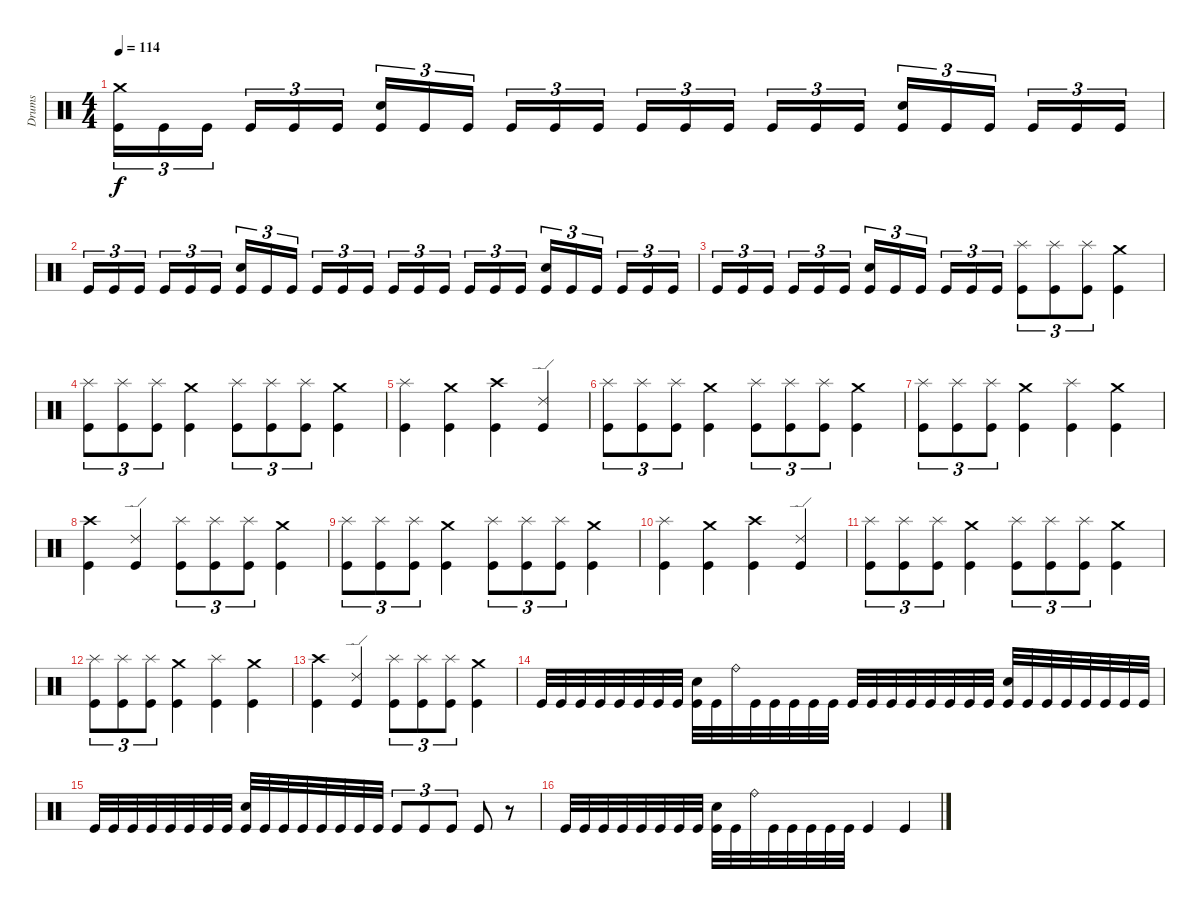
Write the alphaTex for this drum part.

\track ("Drums" "Drums") {instrument percussion}
\staff {score}
\articulation defaults
\ts (4 4)
\tempo 114
\clef neutral
\ks c
("Crash medium (hit)" "Kick (hit)").16{tu (3 2) dy f} "Kick (hit)".16{tu (3 2)} "Kick (hit)".16{tu (3 2)} "Kick (hit)".16{tu (3 2)} "Kick (hit)".16{tu (3 2)} "Kick (hit)".16{tu (3 2)} ("Snare (hit) 2" "Kick (hit)").16{tu (3 2)} "Kick (hit)".16{tu (3 2)} "Kick (hit)".16{tu (3 2)} "Kick (hit)".16{tu (3 2)} "Kick (hit)".16{tu (3 2)} "Kick (hit)".16{tu (3 2)} "Kick (hit)".16{tu (3 2)} "Kick (hit)".16{tu (3 2)} "Kick (hit)".16{tu (3 2)} "Kick (hit)".16{tu (3 2)} "Kick (hit)".16{tu (3 2)} "Kick (hit)".16{tu (3 2)} ("Snare (hit) 2" "Kick (hit)").16{tu (3 2)} "Kick (hit)".16{tu (3 2)} "Kick (hit)".16{tu (3 2)} "Kick (hit)".16{tu (3 2)} "Kick (hit)".16{tu (3 2)} "Kick (hit)".16{tu (3 2)} |
"Kick (hit)".16{tu (3 2)} "Kick (hit)".16{tu (3 2)} "Kick (hit)".16{tu (3 2)} "Kick (hit)".16{tu (3 2)} "Kick (hit)".16{tu (3 2)} "Kick (hit)".16{tu (3 2)} ("Snare (hit) 2" "Kick (hit)").16{tu (3 2)} "Kick (hit)".16{tu (3 2)} "Kick (hit)".16{tu (3 2)} "Kick (hit)".16{tu (3 2)} "Kick (hit)".16{tu (3 2)} "Kick (hit)".16{tu (3 2)} "Kick (hit)".16{tu (3 2)} "Kick (hit)".16{tu (3 2)} "Kick (hit)".16{tu (3 2)} "Kick (hit)".16{tu (3 2)} "Kick (hit)".16{tu (3 2)} "Kick (hit)".16{tu (3 2)} ("Snare (hit) 2" "Kick (hit)").16{tu (3 2)} "Kick (hit)".16{tu (3 2)} "Kick (hit)".16{tu (3 2)} "Kick (hit)".16{tu (3 2)} "Kick (hit)".16{tu (3 2)} "Kick (hit)".16{tu (3 2)} |
"Kick (hit)".16{tu (3 2)} "Kick (hit)".16{tu (3 2)} "Kick (hit)".16{tu (3 2)} "Kick (hit)".16{tu (3 2)} "Kick (hit)".16{tu (3 2)} "Kick (hit)".16{tu (3 2)} ("Snare (hit) 2" "Kick (hit)").16{tu (3 2)} "Kick (hit)".16{tu (3 2)} "Kick (hit)".16{tu (3 2)} "Kick (hit)".16{tu (3 2)} "Kick (hit)".16{tu (3 2)} "Kick (hit)".16{tu (3 2)} ("Splash (hit)" "Kick (hit)").8{tu (3 2)} ("Splash (hit)" "Kick (hit)").8{tu (3 2)} ("Splash (hit)" "Kick (hit)").8{tu (3 2)} ("Crash medium (hit)" "Kick (hit)").4 |
("Splash (hit)" "Kick (hit)").8{tu (3 2)} ("Splash (hit)" "Kick (hit)").8{tu (3 2)} ("Splash (hit)" "Kick (hit)").8{tu (3 2)} ("Crash medium (hit)" "Kick (hit)").4 ("Splash (hit)" "Kick (hit)").8{tu (3 2)} ("Splash (hit)" "Kick (hit)").8{tu (3 2)} ("Splash (hit)" "Kick (hit)").8{tu (3 2)} ("Crash medium (hit)" "Kick (hit)").4 |
("Splash (hit)" "Kick (hit)").4 ("Crash medium (hit)" "Kick (hit)").4 ("Crash high (hit)" "Kick (hit)").4 ("Ride (edge) 2" "Kick (hit)").4 |
("Splash (hit)" "Kick (hit)").8{tu (3 2)} ("Splash (hit)" "Kick (hit)").8{tu (3 2)} ("Splash (hit)" "Kick (hit)").8{tu (3 2)} ("Crash medium (hit)" "Kick (hit)").4 ("Splash (hit)" "Kick (hit)").8{tu (3 2)} ("Splash (hit)" "Kick (hit)").8{tu (3 2)} ("Splash (hit)" "Kick (hit)").8{tu (3 2)} ("Crash medium (hit)" "Kick (hit)").4 |
("Splash (hit)" "Kick (hit)").8{tu (3 2)} ("Splash (hit)" "Kick (hit)").8{tu (3 2)} ("Splash (hit)" "Kick (hit)").8{tu (3 2)} ("Crash medium (hit)" "Kick (hit)").4 ("Splash (hit)" "Kick (hit)").4 ("Crash medium (hit)" "Kick (hit)").4 |
("Crash high (hit)" "Kick (hit)").4 ("Ride (edge) 2" "Kick (hit)").4 ("Splash (hit)" "Kick (hit)").8{tu (3 2)} ("Splash (hit)" "Kick (hit)").8{tu (3 2)} ("Splash (hit)" "Kick (hit)").8{tu (3 2)} ("Crash medium (hit)" "Kick (hit)").4 |
("Splash (hit)" "Kick (hit)").8{tu (3 2)} ("Splash (hit)" "Kick (hit)").8{tu (3 2)} ("Splash (hit)" "Kick (hit)").8{tu (3 2)} ("Crash medium (hit)" "Kick (hit)").4 ("Splash (hit)" "Kick (hit)").8{tu (3 2)} ("Splash (hit)" "Kick (hit)").8{tu (3 2)} ("Splash (hit)" "Kick (hit)").8{tu (3 2)} ("Crash medium (hit)" "Kick (hit)").4 |
("Splash (hit)" "Kick (hit)").4 ("Crash medium (hit)" "Kick (hit)").4 ("Crash high (hit)" "Kick (hit)").4 ("Ride (edge) 2" "Kick (hit)").4 |
("Splash (hit)" "Kick (hit)").8{tu (3 2)} ("Splash (hit)" "Kick (hit)").8{tu (3 2)} ("Splash (hit)" "Kick (hit)").8{tu (3 2)} ("Crash medium (hit)" "Kick (hit)").4 ("Splash (hit)" "Kick (hit)").8{tu (3 2)} ("Splash (hit)" "Kick (hit)").8{tu (3 2)} ("Splash (hit)" "Kick (hit)").8{tu (3 2)} ("Crash medium (hit)" "Kick (hit)").4 |
("Splash (hit)" "Kick (hit)").8{tu (3 2)} ("Splash (hit)" "Kick (hit)").8{tu (3 2)} ("Splash (hit)" "Kick (hit)").8{tu (3 2)} ("Crash medium (hit)" "Kick (hit)").4 ("Splash (hit)" "Kick (hit)").4 ("Crash medium (hit)" "Kick (hit)").4 |
("Crash high (hit)" "Kick (hit)").4 ("Ride (edge) 2" "Kick (hit)").4 ("Splash (hit)" "Kick (hit)").8{tu (3 2)} ("Splash (hit)" "Kick (hit)").8{tu (3 2)} ("Splash (hit)" "Kick (hit)").8{tu (3 2)} ("Crash medium (hit)" "Kick (hit)").4 |
"Kick (hit)".32 "Kick (hit)".32 "Kick (hit)".32 "Kick (hit)".32 "Kick (hit)".32 "Kick (hit)".32 "Kick (hit)".32 "Kick (hit)".32 ("Snare (hit) 2" "Kick (hit)").32 "Kick (hit)".32 "Ride (bell)".32 "Kick (hit)".32 "Kick (hit)".32 "Kick (hit)".32 "Kick (hit)".32 "Kick (hit)".32 "Kick (hit)".32 "Kick (hit)".32 "Kick (hit)".32 "Kick (hit)".32 "Kick (hit)".32 "Kick (hit)".32 "Kick (hit)".32 "Kick (hit)".32 ("Snare (hit) 2" "Kick (hit)").32 "Kick (hit)".32 "Kick (hit)".32 "Kick (hit)".32 "Kick (hit)".32 "Kick (hit)".32 "Kick (hit)".32 "Kick (hit)".32 |
"Kick (hit)".32 "Kick (hit)".32 "Kick (hit)".32 "Kick (hit)".32 "Kick (hit)".32 "Kick (hit)".32 "Kick (hit)".32 "Kick (hit)".32 ("Snare (hit) 2" "Kick (hit)").32 "Kick (hit)".32 "Kick (hit)".32 "Kick (hit)".32 "Kick (hit)".32 "Kick (hit)".32 "Kick (hit)".32 "Kick (hit)".32 "Kick (hit)".8{tu (3 2)} "Kick (hit)".8{tu (3 2)} "Kick (hit)".8{tu (3 2)} "Kick (hit)".8 r.8 |
"Kick (hit)".32 "Kick (hit)".32 "Kick (hit)".32 "Kick (hit)".32 "Kick (hit)".32 "Kick (hit)".32 "Kick (hit)".32 "Kick (hit)".32 ("Snare (hit) 2" "Kick (hit)").32 "Kick (hit)".32 "Ride (bell)".32 "Kick (hit)".32 "Kick (hit)".32 "Kick (hit)".32 "Kick (hit)".32 "Kick (hit)".32 "Kick (hit)".4 "Kick (hit)".4
